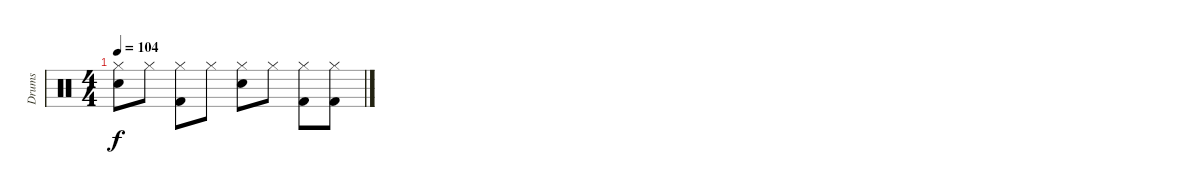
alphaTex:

\track ("Drums" "Drums") {instrument percussion}
\staff {score}
\articulation defaults
\ts (4 4)
\tempo 104
\clef neutral
\ks c
("Hi-Hat (closed)" "Snare (hit) 2").8{dy f} "Hi-Hat (closed)".8 ("Hi-Hat (closed)" "Kick (hit) 2").8 "Hi-Hat (closed)".8 ("Hi-Hat (closed)" "Snare (hit) 2").8 "Hi-Hat (closed)".8 ("Hi-Hat (closed)" "Kick (hit) 2").8 ("Hi-Hat (closed)" "Kick (hit) 2").8
